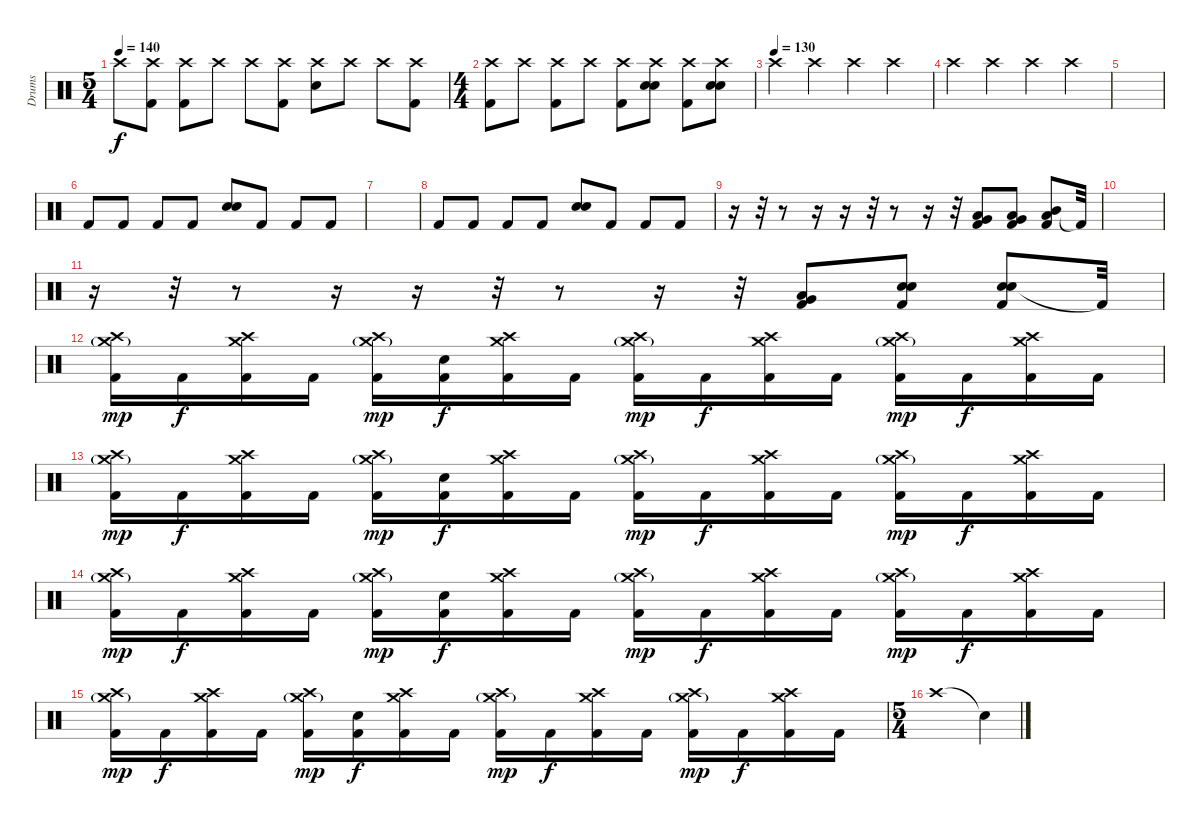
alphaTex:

\track ("Drums" "Drums") {instrument percussion}
\staff {score}
\articulation defaults
\ts (5 4)
\tempo 140
\clef neutral
\ks c "Crash high (hit)".8{dy f}
("Crash high (hit)"{x} "Kick (hit) 2").8 ("Crash high (hit)" "Kick (hit) 2").8 "Crash high (hit)"{x}.8 "Crash high (hit)".8 ("Crash high (hit)"{x} "Kick (hit) 2").8 ("Crash high (hit)" "Electric Snare (hit)").8 "Crash high (hit)"{x}.8 "Crash high (hit)".8 ("Crash high (hit)"{x} "Kick (hit) 2").8 |
\ts (4 4)
("Crash high (hit)" "Kick (hit) 2").8 "Crash high (hit)"{x}.8 ("Crash high (hit)" "Kick (hit) 2"{x}).8 "Crash high (hit)"{x}.8 ("Crash high (hit)" "Kick (hit) 2").8 ("Crash high (hit)"{x} "Snare (hit) 2" "Electric Snare (hit)").8 ("Crash high (hit)" "Kick (hit) 2").8 ("Crash high (hit)"{x} "Electric Snare (hit)" "Snare (hit) 2").8 |
\tempo (130)
"Crash high (hit)".4 "Crash high (hit)".4 "Crash high (hit)".4 "Crash high (hit)".4 |
"Crash high (hit)".4 "Crash high (hit)".4 "Crash high (hit)".4 "Crash high (hit)".4 |
|
"Kick (hit) 2".8 "Kick (hit) 2".8 "Kick (hit) 2".8 "Kick (hit) 2".8 ("Snare (hit) 2" "Electric Snare (hit)").8 "Kick (hit) 2"{x}.8 "Kick (hit) 2"{x}.8 "Kick (hit) 2"{x}.8 |
|
"Kick (hit) 2".8 "Kick (hit) 2".8 "Kick (hit) 2".8 "Kick (hit) 2".8 ("Snare (hit) 2" "Electric Snare (hit)").8 "Kick (hit) 2"{x}.8 "Kick (hit) 2"{x}.8 "Kick (hit) 2"{x}.8 |
r.16 r.32 r.8 r.16 r.16 r.32 r.8 r.16 r.32 ("Low Tom (hit)" "Very Low Tom (hit)" "Kick (hit) 2").8 ("Low Tom (hit)" "Very Low Tom (hit)" "Kick (hit) 2").8 ("Mid Tom (hit)" "Low Tom (hit)" "Kick (hit) 2").8 "Kick (hit) 2"{t}.32 |
|
r.16 r.32 r.8 r.16 r.16 r.32 r.8 r.16 r.32 ("Low Tom (hit)" "Very Low Tom (hit)" "Kick (hit) 2").8 ("Snare (hit) 2" "Electric Snare (hit)" "Kick (hit) 2").8 ("Snare (hit) 2" "Electric Snare (hit)" "Kick (hit) 2").8 "Kick (hit) 2"{t}.32 |
("Crash high (hit)" "Crash medium (hit)"{g} "Kick (hit) 2").16{dy mp} "Kick (hit) 2".16{dy f} ("Crash high (hit)"{x} "Crash medium (hit)"{x} "Kick (hit) 2").16 "Kick (hit) 2".16 ("Crash high (hit)" "Crash medium (hit)"{g} "Kick (hit) 2").16{dy mp} ("Snare (hit)"{x} "Kick (hit) 2").16{dy f} ("Crash high (hit)"{x} "Crash medium (hit)"{x} "Kick (hit) 2").16 "Kick (hit) 2".16 ("Crash high (hit)" "Crash medium (hit)"{g} "Kick (hit) 2").16{dy mp} "Kick (hit) 2".16{dy f} ("Crash high (hit)"{x} "Crash medium (hit)"{x} "Kick (hit) 2").16 "Kick (hit) 2".16 ("Crash high (hit)" "Crash medium (hit)"{g} "Kick (hit) 2").16{dy mp} "Kick (hit) 2".16{dy f} ("Crash high (hit)"{x} "Crash medium (hit)"{x} "Kick (hit) 2").16 "Kick (hit) 2".16 |
("Crash high (hit)" "Crash medium (hit)"{g} "Kick (hit) 2").16{dy mp} "Kick (hit) 2".16{dy f} ("Crash high (hit)"{x} "Crash medium (hit)"{x} "Kick (hit) 2").16 "Kick (hit) 2".16 ("Crash high (hit)" "Crash medium (hit)"{g} "Kick (hit) 2").16{dy mp} ("Snare (hit)"{x} "Kick (hit) 2").16{dy f} ("Crash high (hit)"{x} "Crash medium (hit)"{x} "Kick (hit) 2").16 "Kick (hit) 2".16 ("Crash high (hit)" "Crash medium (hit)"{g} "Kick (hit) 2").16{dy mp} "Kick (hit) 2".16{dy f} ("Crash high (hit)"{x} "Crash medium (hit)"{x} "Kick (hit) 2").16 "Kick (hit) 2".16 ("Crash high (hit)" "Crash medium (hit)"{g} "Kick (hit) 2").16{dy mp} "Kick (hit) 2".16{dy f} ("Crash high (hit)"{x} "Crash medium (hit)"{x} "Kick (hit) 2").16 "Kick (hit) 2".16 |
("Crash high (hit)" "Crash medium (hit)"{g} "Kick (hit) 2").16{dy mp} "Kick (hit) 2".16{dy f} ("Crash high (hit)"{x} "Crash medium (hit)"{x} "Kick (hit) 2").16 "Kick (hit) 2".16 ("Crash high (hit)" "Crash medium (hit)"{g} "Kick (hit) 2").16{dy mp} ("Snare (hit)"{x} "Kick (hit) 2").16{dy f} ("Crash high (hit)"{x} "Crash medium (hit)"{x} "Kick (hit) 2").16 "Kick (hit) 2".16 ("Crash high (hit)" "Crash medium (hit)"{g} "Kick (hit) 2").16{dy mp} "Kick (hit) 2".16{dy f} ("Crash high (hit)"{x} "Crash medium (hit)"{x} "Kick (hit) 2").16 "Kick (hit) 2".16 ("Crash high (hit)" "Crash medium (hit)"{g} "Kick (hit) 2").16{dy mp} "Kick (hit) 2".16{dy f} ("Crash high (hit)"{x} "Crash medium (hit)"{x} "Kick (hit) 2").16 "Kick (hit) 2".16 |
("Crash high (hit)" "Crash medium (hit)"{g} "Kick (hit) 2").16{dy mp} "Kick (hit) 2".16{dy f} ("Crash high (hit)"{x} "Crash medium (hit)"{x} "Kick (hit) 2").16 "Kick (hit) 2".16 ("Crash high (hit)" "Crash medium (hit)"{g} "Kick (hit) 2").16{dy mp} ("Snare (hit)"{x} "Kick (hit) 2").16{dy f} ("Crash high (hit)"{x} "Crash medium (hit)"{x} "Kick (hit) 2").16 "Kick (hit) 2".16 ("Crash high (hit)" "Crash medium (hit)"{g} "Kick (hit) 2").16{dy mp} "Kick (hit) 2".16{dy f} ("Crash high (hit)"{x} "Crash medium (hit)"{x} "Kick (hit) 2").16 "Kick (hit) 2".16 ("Crash high (hit)" "Crash medium (hit)"{g} "Kick (hit) 2").16{dy mp} "Kick (hit) 2".16{dy f} ("Crash high (hit)"{x} "Crash medium (hit)"{x} "Kick (hit) 2").16 "Kick (hit) 2".16 |
\ts (5 4)
"Crash high (hit)".1 "Snare (hit)"{t}.4
